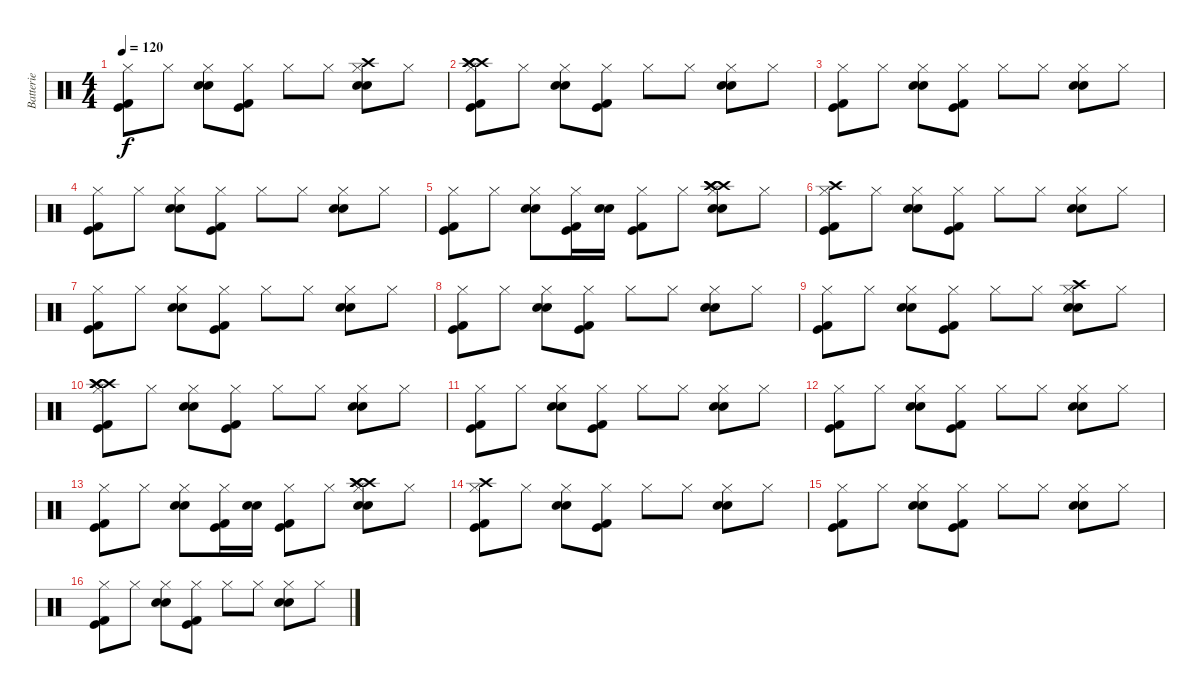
\track ("Batterie" "Batterie") {instrument percussion}
\staff {score}
\articulation defaults
\ts (4 4)
\tempo 120
\clef neutral
\ks c
("Hi-Hat (closed)" "Kick (hit)" "Kick (hit) 2").8{dy f} "Hi-Hat (closed)".8 ("Hi-Hat (closed)" "Electric Snare (hit)" "Electric Snare (hit)").8 ("Hi-Hat (closed)" "Kick (hit)" "Kick (hit) 2").8 "Hi-Hat (closed)".8 "Hi-Hat (closed)".8 ("Hi-Hat (closed)" "Electric Snare (hit)" "Electric Snare (hit)" "Crash high (hit)").8 "Hi-Hat (closed)".8 |
("Crash high (hit)" "Hi-Hat (closed)" "Crash high (hit)" "Kick (hit)" "Kick (hit) 2" "Crash high (hit)").8 "Hi-Hat (closed)".8 ("Hi-Hat (closed)" "Electric Snare (hit)" "Electric Snare (hit)").8 ("Hi-Hat (closed)" "Kick (hit)" "Kick (hit) 2").8 "Hi-Hat (closed)".8 "Hi-Hat (closed)".8 ("Hi-Hat (closed)" "Electric Snare (hit)" "Electric Snare (hit)").8 "Hi-Hat (closed)".8 |
("Hi-Hat (closed)" "Kick (hit)" "Kick (hit) 2").8 "Hi-Hat (closed)".8 ("Hi-Hat (closed)" "Electric Snare (hit)" "Electric Snare (hit)").8 ("Hi-Hat (closed)" "Kick (hit)" "Kick (hit) 2").8 "Hi-Hat (closed)".8 "Hi-Hat (closed)".8 ("Hi-Hat (closed)" "Electric Snare (hit)" "Electric Snare (hit)").8 "Hi-Hat (closed)".8 |
("Hi-Hat (closed)" "Kick (hit)" "Kick (hit) 2").8 "Hi-Hat (closed)".8 ("Hi-Hat (closed)" "Electric Snare (hit)" "Electric Snare (hit)").8 ("Hi-Hat (closed)" "Kick (hit)" "Kick (hit) 2").8 "Hi-Hat (closed)".8 "Hi-Hat (closed)".8 ("Hi-Hat (closed)" "Electric Snare (hit)" "Electric Snare (hit)").8 "Hi-Hat (closed)".8 |
("Hi-Hat (closed)" "Kick (hit)" "Kick (hit) 2").8 "Hi-Hat (closed)".8 ("Hi-Hat (closed)" "Electric Snare (hit)" "Electric Snare (hit)").8 ("Hi-Hat (closed)" "Kick (hit)" "Kick (hit) 2").16 ("Electric Snare (hit)" "Electric Snare (hit)").16 ("Hi-Hat (closed)" "Kick (hit)" "Kick (hit) 2").8 "Hi-Hat (closed)".8 ("Crash high (hit)" "Hi-Hat (closed)" "Electric Snare (hit)" "Electric Snare (hit)" "Crash high (hit)" "Crash high (hit)").8 "Hi-Hat (closed)".8 |
("Crash high (hit)" "Hi-Hat (closed)" "Kick (hit)" "Kick (hit) 2").8 "Hi-Hat (closed)".8 ("Hi-Hat (closed)" "Electric Snare (hit)" "Electric Snare (hit)").8 ("Hi-Hat (closed)" "Kick (hit)" "Kick (hit) 2").8 "Hi-Hat (closed)".8 "Hi-Hat (closed)".8 ("Hi-Hat (closed)" "Electric Snare (hit)" "Electric Snare (hit)").8 "Hi-Hat (closed)".8 |
("Hi-Hat (closed)" "Kick (hit)" "Kick (hit) 2").8 "Hi-Hat (closed)".8 ("Hi-Hat (closed)" "Electric Snare (hit)" "Electric Snare (hit)").8 ("Hi-Hat (closed)" "Kick (hit)" "Kick (hit) 2").8 "Hi-Hat (closed)".8 "Hi-Hat (closed)".8 ("Hi-Hat (closed)" "Electric Snare (hit)" "Electric Snare (hit)").8 "Hi-Hat (closed)".8 |
("Hi-Hat (closed)" "Kick (hit)" "Kick (hit) 2").8 "Hi-Hat (closed)".8 ("Hi-Hat (closed)" "Electric Snare (hit)" "Electric Snare (hit)").8 ("Hi-Hat (closed)" "Kick (hit)" "Kick (hit) 2").8 "Hi-Hat (closed)".8 "Hi-Hat (closed)".8 ("Hi-Hat (closed)" "Electric Snare (hit)" "Electric Snare (hit)").8 "Hi-Hat (closed)".8 |
("Hi-Hat (closed)" "Kick (hit)" "Kick (hit) 2").8 "Hi-Hat (closed)".8 ("Hi-Hat (closed)" "Electric Snare (hit)" "Electric Snare (hit)").8 ("Hi-Hat (closed)" "Kick (hit)" "Kick (hit) 2").8 "Hi-Hat (closed)".8 "Hi-Hat (closed)".8 ("Hi-Hat (closed)" "Electric Snare (hit)" "Electric Snare (hit)" "Crash high (hit)").8 "Hi-Hat (closed)".8 |
("Crash high (hit)" "Hi-Hat (closed)" "Crash high (hit)" "Kick (hit)" "Kick (hit) 2" "Crash high (hit)").8 "Hi-Hat (closed)".8 ("Hi-Hat (closed)" "Electric Snare (hit)" "Electric Snare (hit)").8 ("Hi-Hat (closed)" "Kick (hit)" "Kick (hit) 2").8 "Hi-Hat (closed)".8 "Hi-Hat (closed)".8 ("Hi-Hat (closed)" "Electric Snare (hit)" "Electric Snare (hit)").8 "Hi-Hat (closed)".8 |
("Hi-Hat (closed)" "Kick (hit)" "Kick (hit) 2").8 "Hi-Hat (closed)".8 ("Hi-Hat (closed)" "Electric Snare (hit)" "Electric Snare (hit)").8 ("Hi-Hat (closed)" "Kick (hit)" "Kick (hit) 2").8 "Hi-Hat (closed)".8 "Hi-Hat (closed)".8 ("Hi-Hat (closed)" "Electric Snare (hit)" "Electric Snare (hit)").8 "Hi-Hat (closed)".8 |
("Hi-Hat (closed)" "Kick (hit)" "Kick (hit) 2").8 "Hi-Hat (closed)".8 ("Hi-Hat (closed)" "Electric Snare (hit)" "Electric Snare (hit)").8 ("Hi-Hat (closed)" "Kick (hit)" "Kick (hit) 2").8 "Hi-Hat (closed)".8 "Hi-Hat (closed)".8 ("Hi-Hat (closed)" "Electric Snare (hit)" "Electric Snare (hit)").8 "Hi-Hat (closed)".8 |
("Hi-Hat (closed)" "Kick (hit)" "Kick (hit) 2").8 "Hi-Hat (closed)".8 ("Hi-Hat (closed)" "Electric Snare (hit)" "Electric Snare (hit)").8 ("Hi-Hat (closed)" "Kick (hit)" "Kick (hit) 2").16 ("Electric Snare (hit)" "Electric Snare (hit)").16 ("Hi-Hat (closed)" "Kick (hit)" "Kick (hit) 2").8 "Hi-Hat (closed)".8 ("Crash high (hit)" "Hi-Hat (closed)" "Electric Snare (hit)" "Electric Snare (hit)" "Crash high (hit)" "Crash high (hit)").8 "Hi-Hat (closed)".8 |
("Crash high (hit)" "Hi-Hat (closed)" "Kick (hit)" "Kick (hit) 2").8 "Hi-Hat (closed)".8 ("Hi-Hat (closed)" "Electric Snare (hit)" "Electric Snare (hit)").8 ("Hi-Hat (closed)" "Kick (hit)" "Kick (hit) 2").8 "Hi-Hat (closed)".8 "Hi-Hat (closed)".8 ("Hi-Hat (closed)" "Electric Snare (hit)" "Electric Snare (hit)").8 "Hi-Hat (closed)".8 |
("Hi-Hat (closed)" "Kick (hit)" "Kick (hit) 2").8 "Hi-Hat (closed)".8 ("Hi-Hat (closed)" "Electric Snare (hit)" "Electric Snare (hit)").8 ("Hi-Hat (closed)" "Kick (hit)" "Kick (hit) 2").8 "Hi-Hat (closed)".8 "Hi-Hat (closed)".8 ("Hi-Hat (closed)" "Electric Snare (hit)" "Electric Snare (hit)").8 "Hi-Hat (closed)".8 |
("Hi-Hat (closed)" "Kick (hit)" "Kick (hit) 2").8 "Hi-Hat (closed)".8 ("Hi-Hat (closed)" "Electric Snare (hit)" "Electric Snare (hit)").8 ("Hi-Hat (closed)" "Kick (hit)" "Kick (hit) 2").8 "Hi-Hat (closed)".8 "Hi-Hat (closed)".8 ("Hi-Hat (closed)" "Electric Snare (hit)" "Electric Snare (hit)").8 "Hi-Hat (closed)".8
